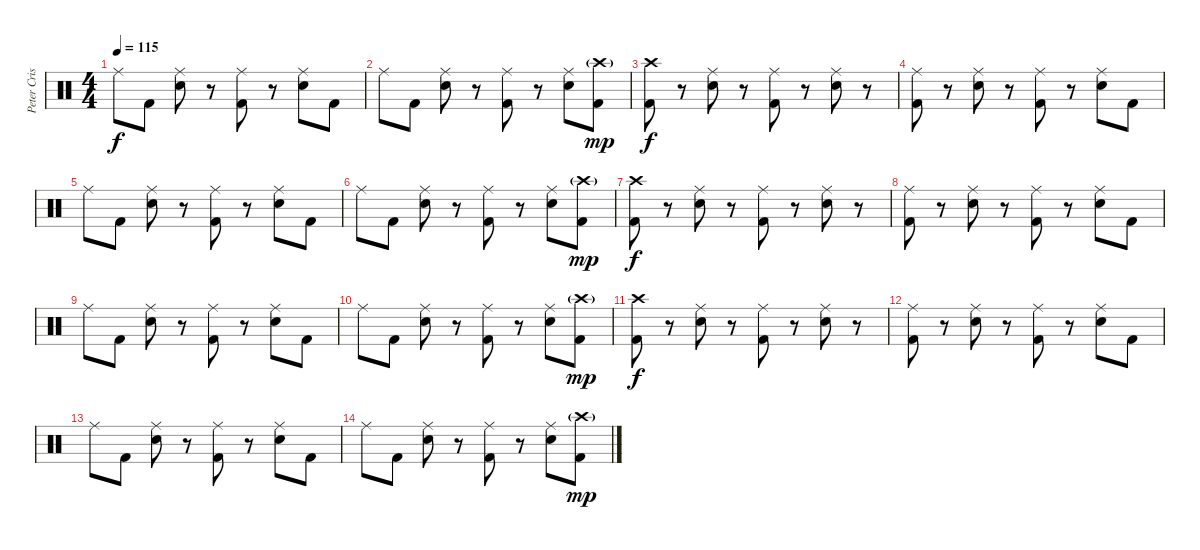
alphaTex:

\track ("Peter Criss" "Peter Cris") {instrument percussion}
\staff {score}
\articulation defaults
\ts (4 4)
\tempo 115
\clef neutral
\ks c "Ride (middle)".8{dy f} "Kick (hit) 2".8
("Ride (middle)" "Electric Snare (hit)").8 r.8 ("Ride (middle)" "Kick (hit) 2").8 r.8 ("Ride (middle)" "Electric Snare (hit)").8 "Kick (hit) 2".8 |
"Ride (middle)".8 "Kick (hit) 2".8 ("Ride (middle)" "Electric Snare (hit)").8 r.8 ("Ride (middle)" "Kick (hit) 2").8 r.8 ("Ride (middle)" "Electric Snare (hit)").8 ("Crash high (hit)"{g} "Kick (hit) 2").8{dy mp} |
("Crash high (hit)" "Kick (hit) 2").8{dy f} r.8 ("Ride (middle)" "Electric Snare (hit)").8 r.8 ("Ride (middle)" "Kick (hit) 2").8 r.8 ("Ride (middle)" "Electric Snare (hit)").8 r.8 |
("Ride (middle)" "Kick (hit) 2").8 r.8 ("Ride (middle)" "Electric Snare (hit)").8 r.8 ("Ride (middle)" "Kick (hit) 2").8 r.8 ("Ride (middle)" "Electric Snare (hit)").8 "Kick (hit) 2".8 |
"Ride (middle)".8 "Kick (hit) 2".8 ("Ride (middle)" "Electric Snare (hit)").8 r.8 ("Ride (middle)" "Kick (hit) 2").8 r.8 ("Ride (middle)" "Electric Snare (hit)").8 "Kick (hit) 2".8 |
"Ride (middle)".8 "Kick (hit) 2".8 ("Ride (middle)" "Electric Snare (hit)").8 r.8 ("Ride (middle)" "Kick (hit) 2").8 r.8 ("Ride (middle)" "Electric Snare (hit)").8 ("Crash high (hit)"{g} "Kick (hit) 2").8{dy mp} |
("Crash high (hit)" "Kick (hit) 2").8{dy f} r.8 ("Ride (middle)" "Electric Snare (hit)").8 r.8 ("Ride (middle)" "Kick (hit) 2").8 r.8 ("Ride (middle)" "Electric Snare (hit)").8 r.8 |
("Ride (middle)" "Kick (hit) 2").8 r.8 ("Ride (middle)" "Electric Snare (hit)").8 r.8 ("Ride (middle)" "Kick (hit) 2").8 r.8 ("Ride (middle)" "Electric Snare (hit)").8 "Kick (hit) 2".8 |
"Ride (middle)".8 "Kick (hit) 2".8 ("Ride (middle)" "Electric Snare (hit)").8 r.8 ("Ride (middle)" "Kick (hit) 2").8 r.8 ("Ride (middle)" "Electric Snare (hit)").8 "Kick (hit) 2".8 |
"Ride (middle)".8 "Kick (hit) 2".8 ("Ride (middle)" "Electric Snare (hit)").8 r.8 ("Ride (middle)" "Kick (hit) 2").8 r.8 ("Ride (middle)" "Electric Snare (hit)").8 ("Crash high (hit)"{g} "Kick (hit) 2").8{dy mp} |
("Crash high (hit)" "Kick (hit) 2").8{dy f volume 8} r.8 ("Ride (middle)" "Electric Snare (hit)").8 r.8 ("Ride (middle)" "Kick (hit) 2").8 r.8 ("Ride (middle)" "Electric Snare (hit)").8 r.8 |
("Ride (middle)" "Kick (hit) 2").8 r.8 ("Ride (middle)" "Electric Snare (hit)").8 r.8 ("Ride (middle)" "Kick (hit) 2").8 r.8 ("Ride (middle)" "Electric Snare (hit)").8 "Kick (hit) 2".8 |
"Ride (middle)".8{volume 0} "Kick (hit) 2".8 ("Ride (middle)" "Electric Snare (hit)").8 r.8 ("Ride (middle)" "Kick (hit) 2").8 r.8 ("Ride (middle)" "Electric Snare (hit)").8 "Kick (hit) 2".8 |
"Ride (middle)".8 "Kick (hit) 2".8 ("Ride (middle)" "Electric Snare (hit)").8 r.8 ("Ride (middle)" "Kick (hit) 2").8 r.8 ("Ride (middle)" "Electric Snare (hit)").8 ("Crash high (hit)"{g} "Kick (hit) 2").8{dy mp}
